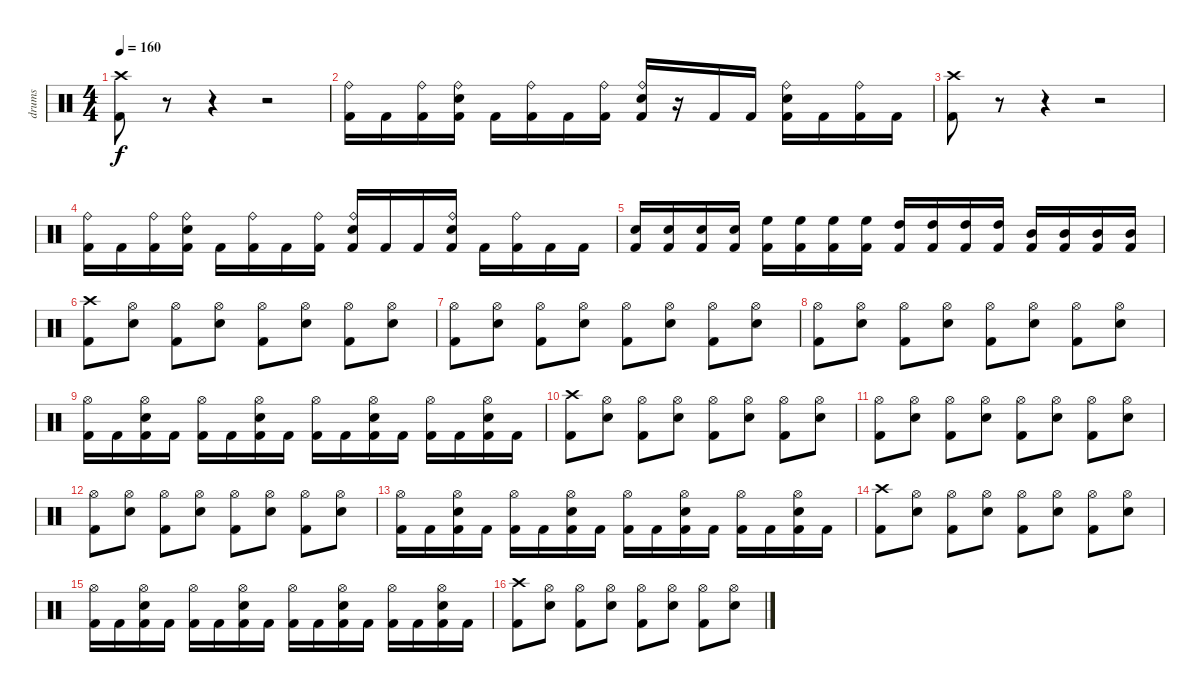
\track ("drums" "drums") {instrument percussion}
\staff {score}
\articulation defaults
\ts (4 4)
\tempo 160
\clef neutral
\ks c
("Crash high (hit)" "Kick (hit) 2").8{dy f} r.8 r.4 r.2 |
("Ride (bell)" "Kick (hit) 2").16 "Kick (hit) 2".16 ("Ride (bell)" "Kick (hit) 2").16 ("Ride (bell)" "Snare (hit) 2" "Kick (hit) 2").16 "Kick (hit) 2".16 ("Ride (bell)" "Kick (hit) 2").16 "Kick (hit) 2".16 ("Ride (bell)" "Kick (hit) 2").16 ("Ride (bell)" "Snare (hit) 2" "Kick (hit) 2").16 r.16 "Kick (hit) 2".16 "Kick (hit) 2".16 ("Ride (bell)" "Snare (hit) 2" "Kick (hit) 2").16 "Kick (hit) 2".16 ("Ride (bell)" "Kick (hit) 2").16 "Kick (hit) 2".16 |
("Crash high (hit)" "Kick (hit) 2").8 r.8 r.4 r.2 |
("Ride (bell)" "Kick (hit) 2").16 "Kick (hit) 2".16 ("Ride (bell)" "Kick (hit) 2").16 ("Ride (bell)" "Snare (hit) 2" "Kick (hit) 2").16 "Kick (hit) 2".16 ("Ride (bell)" "Kick (hit) 2").16 "Kick (hit) 2".16 ("Ride (bell)" "Kick (hit) 2").16 ("Ride (bell)" "Snare (hit) 2" "Kick (hit) 2").16 "Kick (hit) 2".16 "Kick (hit) 2".16 ("Ride (bell)" "Snare (hit) 2" "Kick (hit) 2").16 "Kick (hit) 2".16 ("Ride (bell)" "Kick (hit) 2").16 "Kick (hit) 2".16 "Kick (hit) 2".16 |
("Snare (hit) 2" "Kick (hit) 2").16 ("Snare (hit) 2" "Kick (hit) 2").16 ("Snare (hit) 2" "Kick (hit) 2").16 ("Snare (hit) 2" "Kick (hit) 2").16 ("High Floor Tom (hit)" "Kick (hit) 2").16 ("High Floor Tom (hit)" "Kick (hit) 2").16 ("High Floor Tom (hit)" "Kick (hit) 2").16 ("High Floor Tom (hit)" "Kick (hit) 2").16 ("High Tom (hit)" "Kick (hit) 2").16 ("High Tom (hit)" "Kick (hit) 2").16 ("High Tom (hit)" "Kick (hit) 2").16 ("High Tom (hit)" "Kick (hit) 2").16 ("Mid Tom (hit)" "Kick (hit) 2").16 ("Mid Tom (hit)" "Kick (hit) 2").16 ("Mid Tom (hit)" "Kick (hit) 2").16 ("Mid Tom (hit)" "Kick (hit) 2").16 |
("Crash high (hit)" "Kick (hit) 2").8 ("Hi-Hat (open)" "Snare (hit) 2").8 ("Hi-Hat (open)" "Kick (hit) 2").8 ("Hi-Hat (open)" "Snare (hit) 2").8 ("Hi-Hat (open)" "Kick (hit) 2").8 ("Hi-Hat (open)" "Snare (hit) 2").8 ("Hi-Hat (open)" "Kick (hit) 2").8 ("Hi-Hat (open)" "Snare (hit) 2").8 |
("Hi-Hat (open)" "Kick (hit) 2").8 ("Hi-Hat (open)" "Snare (hit) 2").8 ("Hi-Hat (open)" "Kick (hit) 2").8 ("Hi-Hat (open)" "Snare (hit) 2").8 ("Hi-Hat (open)" "Kick (hit) 2").8 ("Hi-Hat (open)" "Snare (hit) 2").8 ("Hi-Hat (open)" "Kick (hit) 2").8 ("Hi-Hat (open)" "Snare (hit) 2").8 |
("Hi-Hat (open)" "Kick (hit) 2").8 ("Hi-Hat (open)" "Snare (hit) 2").8 ("Hi-Hat (open)" "Kick (hit) 2").8 ("Hi-Hat (open)" "Snare (hit) 2").8 ("Hi-Hat (open)" "Kick (hit) 2").8 ("Hi-Hat (open)" "Snare (hit) 2").8 ("Hi-Hat (open)" "Kick (hit) 2").8 ("Hi-Hat (open)" "Snare (hit) 2").8 |
("Hi-Hat (open)" "Kick (hit) 2").16 "Kick (hit) 2".16 ("Hi-Hat (open)" "Snare (hit) 2" "Kick (hit) 2").16 "Kick (hit) 2".16 ("Hi-Hat (open)" "Kick (hit) 2").16 "Kick (hit) 2".16 ("Hi-Hat (open)" "Snare (hit) 2" "Kick (hit) 2").16 "Kick (hit) 2".16 ("Hi-Hat (open)" "Kick (hit) 2").16 "Kick (hit) 2".16 ("Hi-Hat (open)" "Snare (hit) 2" "Kick (hit) 2").16 "Kick (hit) 2".16 ("Hi-Hat (open)" "Kick (hit) 2").16 "Kick (hit) 2".16 ("Hi-Hat (open)" "Snare (hit) 2" "Kick (hit) 2").16 "Kick (hit) 2".16 |
("Crash high (hit)" "Kick (hit) 2").8 ("Hi-Hat (open)" "Snare (hit) 2").8 ("Hi-Hat (open)" "Kick (hit) 2").8 ("Hi-Hat (open)" "Snare (hit) 2").8 ("Hi-Hat (open)" "Kick (hit) 2").8 ("Hi-Hat (open)" "Snare (hit) 2").8 ("Hi-Hat (open)" "Kick (hit) 2").8 ("Hi-Hat (open)" "Snare (hit) 2").8 |
("Hi-Hat (open)" "Kick (hit) 2").8 ("Hi-Hat (open)" "Snare (hit) 2").8 ("Hi-Hat (open)" "Kick (hit) 2").8 ("Hi-Hat (open)" "Snare (hit) 2").8 ("Hi-Hat (open)" "Kick (hit) 2").8 ("Hi-Hat (open)" "Snare (hit) 2").8 ("Hi-Hat (open)" "Kick (hit) 2").8 ("Hi-Hat (open)" "Snare (hit) 2").8 |
("Hi-Hat (open)" "Kick (hit) 2").8 ("Hi-Hat (open)" "Snare (hit) 2").8 ("Hi-Hat (open)" "Kick (hit) 2").8 ("Hi-Hat (open)" "Snare (hit) 2").8 ("Hi-Hat (open)" "Kick (hit) 2").8 ("Hi-Hat (open)" "Snare (hit) 2").8 ("Hi-Hat (open)" "Kick (hit) 2").8 ("Hi-Hat (open)" "Snare (hit) 2").8 |
("Hi-Hat (open)" "Kick (hit) 2").16 "Kick (hit) 2".16 ("Hi-Hat (open)" "Snare (hit) 2" "Kick (hit) 2").16 "Kick (hit) 2".16 ("Hi-Hat (open)" "Kick (hit) 2").16 "Kick (hit) 2".16 ("Hi-Hat (open)" "Snare (hit) 2" "Kick (hit) 2").16 "Kick (hit) 2".16 ("Hi-Hat (open)" "Kick (hit) 2").16 "Kick (hit) 2".16 ("Hi-Hat (open)" "Snare (hit) 2" "Kick (hit) 2").16 "Kick (hit) 2".16 ("Hi-Hat (open)" "Kick (hit) 2").16 "Kick (hit) 2".16 ("Hi-Hat (open)" "Snare (hit) 2" "Kick (hit) 2").16 "Kick (hit) 2".16 |
("Crash high (hit)" "Kick (hit) 2").8 ("Hi-Hat (open)" "Snare (hit) 2").8 ("Hi-Hat (open)" "Kick (hit) 2").8 ("Hi-Hat (open)" "Snare (hit) 2").8 ("Hi-Hat (open)" "Kick (hit) 2").8 ("Hi-Hat (open)" "Snare (hit) 2").8 ("Hi-Hat (open)" "Kick (hit) 2").8 ("Hi-Hat (open)" "Snare (hit) 2").8 |
("Hi-Hat (open)" "Kick (hit) 2").16 "Kick (hit) 2".16 ("Hi-Hat (open)" "Snare (hit) 2" "Kick (hit) 2").16 "Kick (hit) 2".16 ("Hi-Hat (open)" "Kick (hit) 2").16 "Kick (hit) 2".16 ("Hi-Hat (open)" "Snare (hit) 2" "Kick (hit) 2").16 "Kick (hit) 2".16 ("Hi-Hat (open)" "Kick (hit) 2").16 "Kick (hit) 2".16 ("Hi-Hat (open)" "Snare (hit) 2" "Kick (hit) 2").16 "Kick (hit) 2".16 ("Hi-Hat (open)" "Kick (hit) 2").16 "Kick (hit) 2".16 ("Hi-Hat (open)" "Snare (hit) 2" "Kick (hit) 2").16 "Kick (hit) 2".16 |
("Crash high (hit)" "Kick (hit) 2").8 ("Hi-Hat (open)" "Snare (hit) 2").8 ("Hi-Hat (open)" "Kick (hit) 2").8 ("Hi-Hat (open)" "Snare (hit) 2").8 ("Hi-Hat (open)" "Kick (hit) 2").8 ("Hi-Hat (open)" "Snare (hit) 2").8 ("Hi-Hat (open)" "Kick (hit) 2").8 ("Hi-Hat (open)" "Snare (hit) 2").8
